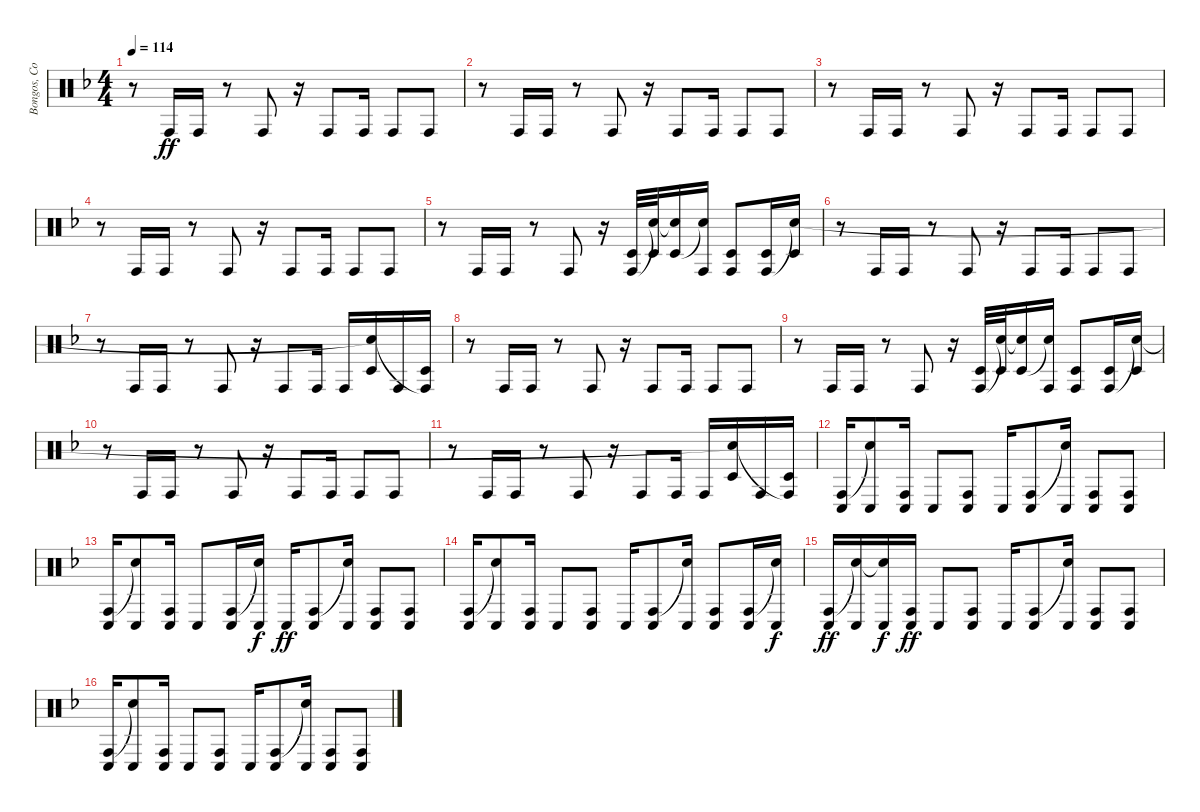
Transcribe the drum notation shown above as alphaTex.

\track ("Bongos, Congas, Timbales" "Bongos, Co") {instrument percussion}
\staff {score}
\articulation defaults
\ts (4 4)
\tempo 114
\clef neutral
\ks f
r.8{dy ff} "Conga high (hit)".16 "Conga high (hit)".16 r.8 "Conga high (hit)".8 r.16 "Conga high (hit)".8 "Conga high (hit)".16 "Conga high (hit)".8 "Conga high (hit)".8 |
r.8 "Conga high (hit)".16 "Conga high (hit)".16 r.8 "Conga high (hit)".8 r.16 "Conga high (hit)".8 "Conga high (hit)".16 "Conga high (hit)".8 "Conga high (hit)".8 |
r.8 "Conga high (hit)".16 "Conga high (hit)".16 r.8 "Conga high (hit)".8 r.16 "Conga high (hit)".8 "Conga high (hit)".16 "Conga high (hit)".8 "Conga high (hit)".8 |
r.8 "Conga high (hit)".16 "Conga high (hit)".16 r.8 "Conga high (hit)".8 r.16 "Conga high (hit)".8 "Conga high (hit)".16 "Conga high (hit)".8 "Conga high (hit)".8 |
r.8 "Conga high (hit)".16 "Conga high (hit)".16 r.8 "Conga high (hit)".8 r.16 ("Timbale low (hit)" "Conga high (hit)").32 ("Timbale low (hit)" "Snare (hit)"{t}).32 ("Timbale low (hit)" "Snare (hit)"{t}).16 ("Snare (hit)"{t} "Conga high (hit)").16 ("Timbale low (hit)" "Conga high (hit)").8 ("Timbale low (hit)" "Conga high (hit)").16 ("Timbale low (hit)" "Snare (hit)"{t}).16 |
r.8 "Conga high (hit)".16 "Conga high (hit)".16 r.8 "Conga high (hit)".8 r.16 "Conga high (hit)".8 "Conga high (hit)".16 "Conga high (hit)".8 "Conga high (hit)".8 |
r.8 "Conga high (hit)".16 "Conga high (hit)".16 r.8 "Conga high (hit)".8 r.16 "Conga high (hit)".8 "Conga high (hit)".16 "Conga high (hit)".16 ("Timbale low (hit)" "Snare (hit)"{t}).16 "Conga high (hit)".16 ("Timbale low (hit)" "Conga high (hit)"{t}).16 |
r.8 "Conga high (hit)".16 "Conga high (hit)".16 r.8 "Conga high (hit)".8 r.16 "Conga high (hit)".8 "Conga high (hit)".16 "Conga high (hit)".8 "Conga high (hit)".8 |
r.8 "Conga high (hit)".16 "Conga high (hit)".16 r.8 "Conga high (hit)".8 r.16 ("Timbale low (hit)" "Conga high (hit)").32 ("Timbale low (hit)" "Snare (hit)"{t}).32 ("Timbale low (hit)" "Snare (hit)"{t}).16 ("Snare (hit)"{t} "Conga high (hit)").16 ("Timbale low (hit)" "Conga high (hit)").8 ("Timbale low (hit)" "Conga high (hit)").16 ("Timbale low (hit)" "Snare (hit)"{t}).16 |
r.8 "Conga high (hit)".16 "Conga high (hit)".16 r.8 "Conga high (hit)".8 r.16 "Conga high (hit)".8 "Conga high (hit)".16 "Conga high (hit)".8 "Conga high (hit)".8 |
r.8 "Conga high (hit)".16 "Conga high (hit)".16 r.8 "Conga high (hit)".8 r.16 "Conga high (hit)".8 "Conga high (hit)".16 "Conga high (hit)".16 ("Timbale low (hit)" "Snare (hit)"{t}).16 "Conga high (hit)".16 ("Timbale low (hit)" "Conga high (hit)"{t}).16 |
("Conga high (hit)" "Conga low (hit)").16 ("Snare (hit)"{t} "Conga low (hit)").8 ("Conga high (hit)" "Conga low (hit)").16 "Conga low (hit)".8 ("Conga high (hit)" "Conga low (hit)").8 "Conga low (hit)".16 ("Conga high (hit)" "Conga low (hit)").8 ("Snare (hit)"{t} "Conga low (hit)").16 ("Conga high (hit)" "Conga low (hit)").8 ("Conga high (hit)" "Conga low (hit)").8 |
("Conga high (hit)" "Conga low (hit)").16 ("Snare (hit)"{t} "Conga low (hit)").8 ("Conga high (hit)" "Conga low (hit)").16 "Conga low (hit)".8 ("Conga high (hit)" "Conga low (hit)").16 ("Snare (hit)"{t} "Conga low (hit)").16{dy f} "Conga low (hit)".16{dy ff} ("Conga high (hit)" "Conga low (hit)").8 ("Snare (hit)"{t} "Conga low (hit)").16 ("Conga high (hit)" "Conga low (hit)").8 ("Conga high (hit)" "Conga low (hit)").8 |
("Conga high (hit)" "Conga low (hit)").16 ("Snare (hit)"{t} "Conga low (hit)").8 ("Conga high (hit)" "Conga low (hit)").16 "Conga low (hit)".8 ("Conga high (hit)" "Conga low (hit)").8 "Conga low (hit)".16 ("Conga high (hit)" "Conga low (hit)").8 ("Snare (hit)"{t} "Conga low (hit)").16 ("Conga high (hit)" "Conga low (hit)").8 ("Conga high (hit)" "Conga low (hit)").16 ("Snare (hit)"{t} "Conga low (hit)").16{dy f} |
("Conga high (hit)" "Conga low (hit)").16{dy ff} ("Snare (hit)"{t} "Conga low (hit)").16 ("Snare (hit)"{t} "Conga low (hit)").16{dy f} ("Conga high (hit)" "Conga low (hit)").16{dy ff} "Conga low (hit)".8 ("Conga high (hit)" "Conga low (hit)").8 "Conga low (hit)".16 ("Conga high (hit)" "Conga low (hit)").8 ("Snare (hit)"{t} "Conga low (hit)").16 ("Conga high (hit)" "Conga low (hit)").8 ("Conga high (hit)" "Conga low (hit)").8 |
("Conga high (hit)" "Conga low (hit)").16 ("Snare (hit)"{t} "Conga low (hit)").8 ("Conga high (hit)" "Conga low (hit)").16 "Conga low (hit)".8 ("Conga high (hit)" "Conga low (hit)").8 "Conga low (hit)".16 ("Conga high (hit)" "Conga low (hit)").8 ("Snare (hit)"{t} "Conga low (hit)").16 ("Conga high (hit)" "Conga low (hit)").8 ("Conga high (hit)" "Conga low (hit)").8
